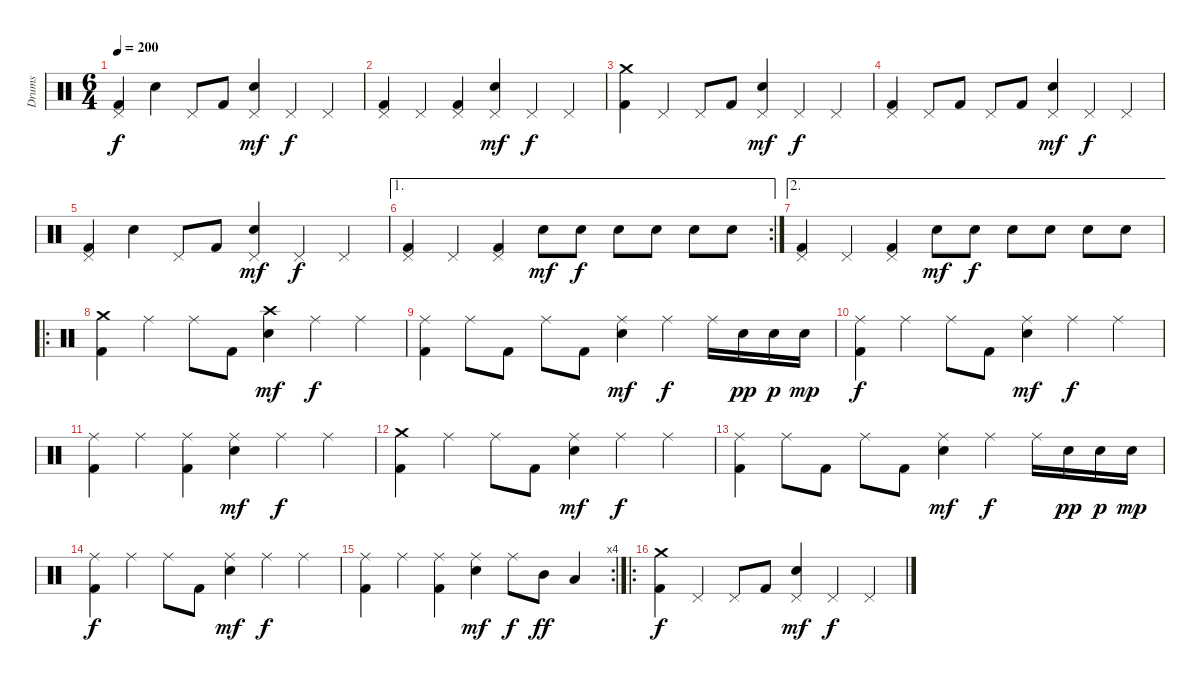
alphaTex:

\track ("Drums" "Drums") {instrument percussion}
\staff {score}
\articulation defaults
\ts (6 4)
\tempo 200
\clef neutral
\ks c
("Pedal Hi-Hat (hit)" "Kick (hit) 2").4{dy f} "Snare (hit)".4 "Pedal Hi-Hat (hit)".8 "Kick (hit) 2".8 ("Pedal Hi-Hat (hit)" "Snare (hit) 2").4{dy mf} "Pedal Hi-Hat (hit)".4{dy f} "Pedal Hi-Hat (hit)".4 |
("Pedal Hi-Hat (hit)" "Kick (hit) 2").4 "Pedal Hi-Hat (hit)".4 ("Pedal Hi-Hat (hit)" "Kick (hit) 2").4 ("Pedal Hi-Hat (hit)" "Snare (hit) 2").4{dy mf} "Pedal Hi-Hat (hit)".4{dy f} "Pedal Hi-Hat (hit)".4 |
("Crash medium (hit)" "Kick (hit) 2").4 "Pedal Hi-Hat (hit)".4 "Pedal Hi-Hat (hit)".8 "Kick (hit) 2".8 ("Pedal Hi-Hat (hit)" "Snare (hit) 2").4{dy mf} "Pedal Hi-Hat (hit)".4{dy f} "Pedal Hi-Hat (hit)".4 |
("Pedal Hi-Hat (hit)" "Kick (hit) 2").4 "Pedal Hi-Hat (hit)".8 "Kick (hit) 2".8 "Pedal Hi-Hat (hit)".8 "Kick (hit) 2".8 ("Pedal Hi-Hat (hit)" "Snare (hit) 2").4{dy mf} "Pedal Hi-Hat (hit)".4{dy f} "Pedal Hi-Hat (hit)".4 |
("Pedal Hi-Hat (hit)" "Kick (hit) 2").4 "Snare (hit)".4 "Pedal Hi-Hat (hit)".8 "Kick (hit) 2".8 ("Pedal Hi-Hat (hit)" "Snare (hit) 2").4{dy mf} "Pedal Hi-Hat (hit)".4{dy f} "Pedal Hi-Hat (hit)".4 |
\ae 1
\rc 2
("Pedal Hi-Hat (hit)" "Kick (hit) 2").4 "Pedal Hi-Hat (hit)".4 ("Pedal Hi-Hat (hit)" "Kick (hit) 2").4 "Snare (hit) 2".8{dy mf} "Snare (hit) 2".8{dy f} "Snare (hit) 2".8 "Snare (hit) 2".8 "Snare (hit) 2".8 "Snare (hit) 2".8 |
\ae 2
("Pedal Hi-Hat (hit)" "Kick (hit) 2").4 "Pedal Hi-Hat (hit)".4 ("Pedal Hi-Hat (hit)" "Kick (hit) 2").4 "Snare (hit) 2".8{dy mf} "Snare (hit) 2".8{dy f} "Snare (hit) 2".8 "Snare (hit) 2".8 "Snare (hit) 2".8 "Snare (hit) 2".8 |
\ro
("Crash medium (hit)" "Kick (hit) 2").4{volume 13} "Ride (middle)".4 "Ride (middle)".8 "Kick (hit) 2".8 ("Crash high (hit)" "Snare (hit) 2").4{dy mf} "Ride (middle)".4{dy f} "Ride (middle)".4 |
("Ride (middle)" "Kick (hit) 2").4 "Ride (middle)".8 "Kick (hit) 2".8 "Ride (middle)".8 "Kick (hit) 2".8 ("Ride (middle)" "Snare (hit) 2").4{dy mf} "Ride (middle)".4{dy f} "Ride (middle)".16 "Snare (hit) 2".16{dy pp} "Snare (hit) 2".16{dy p} "Snare (hit) 2".16{dy mp} |
("Ride (middle)" "Kick (hit) 2").4{dy f} "Ride (middle)".4 "Ride (middle)".8 "Kick (hit) 2".8 ("Ride (middle)" "Snare (hit) 2").4{dy mf} "Ride (middle)".4{dy f} "Ride (middle)".4 |
("Ride (middle)" "Kick (hit) 2").4 "Ride (middle)".4 ("Ride (middle)" "Kick (hit) 2").4 ("Ride (middle)" "Snare (hit) 2").4{dy mf} "Ride (middle)".4{dy f} "Ride (middle)".4 |
("Crash medium (hit)" "Kick (hit) 2").4 "Ride (middle)".4 "Ride (middle)".8 "Kick (hit) 2".8 ("Ride (middle)" "Snare (hit) 2").4{dy mf} "Ride (middle)".4{dy f} "Ride (middle)".4 |
("Ride (middle)" "Kick (hit) 2").4 "Ride (middle)".8 "Kick (hit) 2".8 "Ride (middle)".8 "Kick (hit) 2".8 ("Ride (middle)" "Snare (hit) 2").4{dy mf} "Ride (middle)".4{dy f} "Ride (middle)".16 "Snare (hit) 2".16{dy pp} "Snare (hit) 2".16{dy p} "Snare (hit) 2".16{dy mp} |
("Ride (middle)" "Kick (hit) 2").4{dy f} "Ride (middle)".4 "Ride (middle)".8 "Kick (hit) 2".8 ("Ride (middle)" "Snare (hit) 2").4{dy mf} "Ride (middle)".4{dy f} "Ride (middle)".4 |
\rc 4
("Ride (middle)" "Kick (hit) 2").4 "Ride (middle)".4 ("Ride (middle)" "Kick (hit) 2").4 ("Ride (middle)" "Snare (hit) 2").4{dy mf} "Ride (middle)".8{dy f} "Mid Tom (hit)".8{dy ff} "Low Tom (hit)".4 |
\ro
("Crash medium (hit)" "Kick (hit) 2").4{dy f} "Pedal Hi-Hat (hit)".4 "Pedal Hi-Hat (hit)".8 "Kick (hit) 2".8 ("Pedal Hi-Hat (hit)" "Snare (hit) 2").4{dy mf} "Pedal Hi-Hat (hit)".4{dy f} "Pedal Hi-Hat (hit)".4
